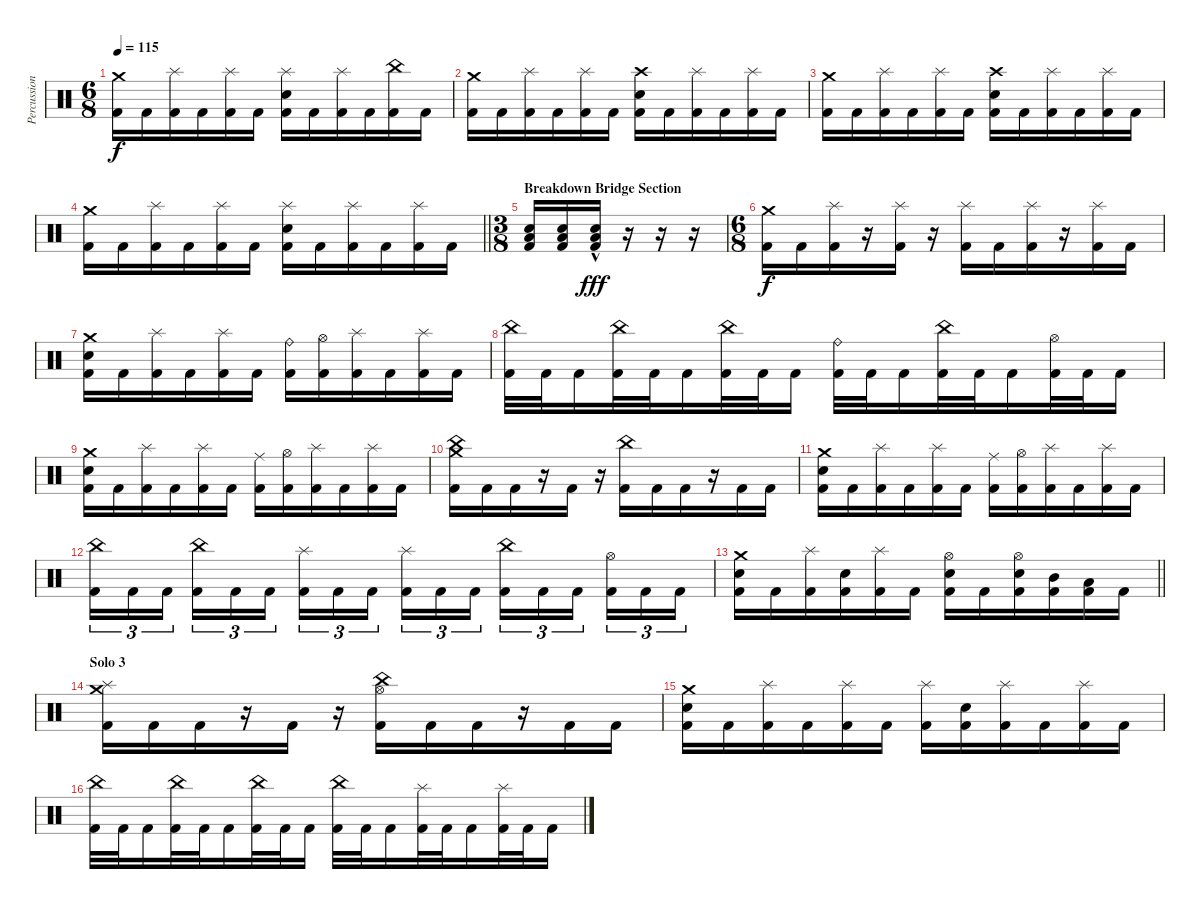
\track ("Percussion" "Percussion") {instrument percussion}
\staff {score}
\articulation defaults
\ts (6 8)
\tempo 115
\clef neutral
\ks c
("Crash medium (hit)" "Kick (hit) 2").16{dy f} "Kick (hit) 2".16 ("Splash (hit)" "Kick (hit) 2").16 "Kick (hit) 2".16 ("Splash (hit)" "Kick (hit) 2").16 "Kick (hit) 2".16 ("Splash (hit)" "Electric Snare (hit)" "Kick (hit) 2").16 "Kick (hit) 2".16 ("Splash (hit)" "Kick (hit) 2").16 "Kick (hit) 2".16 ("China (hit)" "Kick (hit) 2").16 "Kick (hit) 2".16 |
("Crash medium (hit)" "Kick (hit) 2").16 "Kick (hit) 2".16 ("Splash (hit)" "Kick (hit) 2").16 "Kick (hit) 2".16 ("Splash (hit)" "Kick (hit) 2").16 "Kick (hit) 2".16 ("Crash high (hit)" "Electric Snare (hit)" "Kick (hit) 2").16 "Kick (hit) 2".16 ("Splash (hit)" "Kick (hit) 2").16 "Kick (hit) 2".16 ("Splash (hit)" "Kick (hit) 2").16 "Kick (hit) 2".16 |
("Crash medium (hit)" "Kick (hit) 2").16 "Kick (hit) 2".16 ("Splash (hit)" "Kick (hit) 2").16 "Kick (hit) 2".16 ("Splash (hit)" "Kick (hit) 2").16 "Kick (hit) 2".16 ("Crash high (hit)" "Electric Snare (hit)" "Kick (hit) 2").16 "Kick (hit) 2".16 ("Splash (hit)" "Kick (hit) 2").16 "Kick (hit) 2".16 ("Splash (hit)" "Kick (hit) 2").16 "Kick (hit) 2".16 |
\barLineRight lightlight
("Crash medium (hit)" "Kick (hit) 2").16 "Kick (hit) 2".16 ("Splash (hit)" "Kick (hit) 2").16 "Kick (hit) 2".16 ("Splash (hit)" "Kick (hit) 2").16 "Kick (hit) 2".16 ("Splash (hit)" "Electric Snare (hit)" "Kick (hit) 2").16 "Kick (hit) 2".16 ("Splash (hit)" "Kick (hit) 2").16 "Kick (hit) 2".16 ("Splash (hit)" "Kick (hit) 2").16 "Kick (hit) 2".16 |
\ts (3 8)
\section ("" "Breakdown Bridge Section")
("Electric Snare (hit)" "Low Floor Tom (hit)" "Kick (hit) 2").16 ("Electric Snare (hit)" "Low Floor Tom (hit)" "Kick (hit) 2").16 ("Electric Snare (hit)"{hac} "Low Floor Tom (hit)"{hac} "Kick (hit) 2"{hac}).16{dy fff} r.16 r.16 r.16 |
\ts (6 8)
("Crash medium (hit)" "Kick (hit) 2").16{dy f} "Kick (hit) 2".16 ("Splash (hit)" "Kick (hit) 2").16 r.16 ("Splash (hit)" "Kick (hit) 2").16 r.16 ("Splash (hit)" "Kick (hit) 2").16 "Kick (hit) 2".16 ("Splash (hit)" "Kick (hit) 2").16 r.16 ("Splash (hit)" "Kick (hit) 2").16 "Kick (hit) 2".16 |
("Crash medium (hit)" "Electric Snare (hit)" "Kick (hit) 2").16 "Kick (hit) 2".16 ("Splash (hit)" "Kick (hit) 2").16 "Kick (hit) 2".16 ("Splash (hit)" "Kick (hit) 2").16 "Kick (hit) 2".16 ("Ride (bell)" "Kick (hit) 2").16 ("Hi-Hat (open)" "Kick (hit) 2").16 ("Splash (hit)" "Kick (hit) 2").16 "Kick (hit) 2".16 ("Splash (hit)" "Kick (hit) 2").16 "Kick (hit) 2".16 |
("China (hit)" "Kick (hit) 2").32 "Kick (hit) 2".32 "Kick (hit) 2".16 ("China (hit)" "Kick (hit) 2").32 "Kick (hit) 2".32 "Kick (hit) 2".16 ("China (hit)" "Kick (hit) 2").32 "Kick (hit) 2".32 "Kick (hit) 2".16 ("Ride (bell)" "Kick (hit) 2").32 "Kick (hit) 2".32 "Kick (hit) 2".16 ("China (hit)" "Kick (hit) 2").32 "Kick (hit) 2".32 "Kick (hit) 2".16 ("Hi-Hat (open)" "Kick (hit) 2").32 "Kick (hit) 2".32 "Kick (hit) 2".16 |
("Crash medium (hit)" "Electric Snare (hit)" "Kick (hit) 2").16 "Kick (hit) 2".16 ("Splash (hit)" "Kick (hit) 2").16 "Kick (hit) 2".16 ("Splash (hit)" "Kick (hit) 2").16 "Kick (hit) 2".16 ("Ride (middle)" "Kick (hit) 2").16 ("Hi-Hat (open)" "Kick (hit) 2").16 ("Splash (hit)" "Kick (hit) 2").16 "Kick (hit) 2".16 ("Splash (hit)" "Kick (hit) 2").16 "Kick (hit) 2".16 |
("Crash medium (hit)" "China (hit)" "Kick (hit) 2").16 "Kick (hit) 2".16 "Kick (hit) 2".16 r.16 "Kick (hit) 2".16 r.16 ("China (hit)" "Kick (hit) 2").16 "Kick (hit) 2".16 "Kick (hit) 2".16 r.16 "Kick (hit) 2".16 "Kick (hit) 2".16 |
("Crash medium (hit)" "Electric Snare (hit)" "Kick (hit) 2").16 "Kick (hit) 2".16 ("Splash (hit)" "Kick (hit) 2").16 "Kick (hit) 2".16 ("Splash (hit)" "Kick (hit) 2").16 "Kick (hit) 2".16 ("Ride (middle)" "Kick (hit) 2").16 ("Hi-Hat (open)" "Kick (hit) 2").16 ("Splash (hit)" "Kick (hit) 2").16 "Kick (hit) 2".16 ("Splash (hit)" "Kick (hit) 2").16 "Kick (hit) 2".16 |
("China (hit)" "Kick (hit) 2").16{tu (3 2)} "Kick (hit) 2".16{tu (3 2)} "Kick (hit) 2".16{tu (3 2) beam splitsecondary} ("China (hit)" "Kick (hit) 2").16{tu (3 2)} "Kick (hit) 2".16{tu (3 2)} "Kick (hit) 2".16{tu (3 2) beam splitsecondary} ("Splash (hit)" "Kick (hit) 2").16{tu (3 2)} "Kick (hit) 2".16{tu (3 2)} "Kick (hit) 2".16{tu (3 2)} ("Splash (hit)" "Kick (hit) 2").16{tu (3 2)} "Kick (hit) 2".16{tu (3 2)} "Kick (hit) 2".16{tu (3 2) beam splitsecondary} ("China (hit)" "Kick (hit) 2").16{tu (3 2)} "Kick (hit) 2".16{tu (3 2)} "Kick (hit) 2".16{tu (3 2) beam splitsecondary} ("Hi-Hat (open)" "Kick (hit) 2").16{tu (3 2)} "Kick (hit) 2".16{tu (3 2)} "Kick (hit) 2".16{tu (3 2)} |
\barLineRight lightlight
("Crash medium (hit)" "Electric Snare (hit)" "Kick (hit) 2").16 "Kick (hit) 2".16 ("Splash (hit)" "Kick (hit) 2").16 ("Electric Snare (hit)" "Kick (hit) 2").16 ("Splash (hit)" "Kick (hit) 2").16 "Kick (hit) 2".16 ("Hi-Hat (open)" "Electric Snare (hit)" "Kick (hit) 2").16 "Kick (hit) 2".16 ("Hi-Hat (open)" "Electric Snare (hit)" "Kick (hit) 2").16 ("Mid Tom (hit)" "Kick (hit) 2").16 ("Low Tom (hit)" "Kick (hit) 2").16 "Kick (hit) 2".16 |
\section ("" "Solo 3")
("Crash medium (hit)" "Splash (hit)" "Kick (hit) 2").16 "Kick (hit) 2".16 "Kick (hit) 2".16 r.16 "Kick (hit) 2".16 r.16 ("China (hit)" "Hi-Hat (open)" "Kick (hit) 2").16 "Kick (hit) 2".16 "Kick (hit) 2".16 r.16 "Kick (hit) 2".16 "Kick (hit) 2".16 |
("Crash medium (hit)" "Electric Snare (hit)" "Kick (hit) 2").16 "Kick (hit) 2".16 ("Splash (hit)" "Kick (hit) 2").16 "Kick (hit) 2".16 ("Splash (hit)" "Kick (hit) 2").16 "Kick (hit) 2".16 ("Splash (hit)" "Kick (hit) 2").16 ("Electric Snare (hit)" "Kick (hit) 2").16 ("Splash (hit)" "Kick (hit) 2").16 "Kick (hit) 2".16 ("Splash (hit)" "Kick (hit) 2").16 "Kick (hit) 2".16 |
("China (hit)" "Kick (hit) 2").32 "Kick (hit) 2".32 "Kick (hit) 2".16 ("China (hit)" "Kick (hit) 2").32 "Kick (hit) 2".32 "Kick (hit) 2".16 ("China (hit)" "Kick (hit) 2").32 "Kick (hit) 2".32 "Kick (hit) 2".16 ("China (hit)" "Kick (hit) 2").32 "Kick (hit) 2".32 "Kick (hit) 2".16 ("Splash (hit)" "Kick (hit) 2").32 "Kick (hit) 2".32 "Kick (hit) 2".16 ("Splash (hit)" "Kick (hit) 2").32 "Kick (hit) 2".32 "Kick (hit) 2".16
